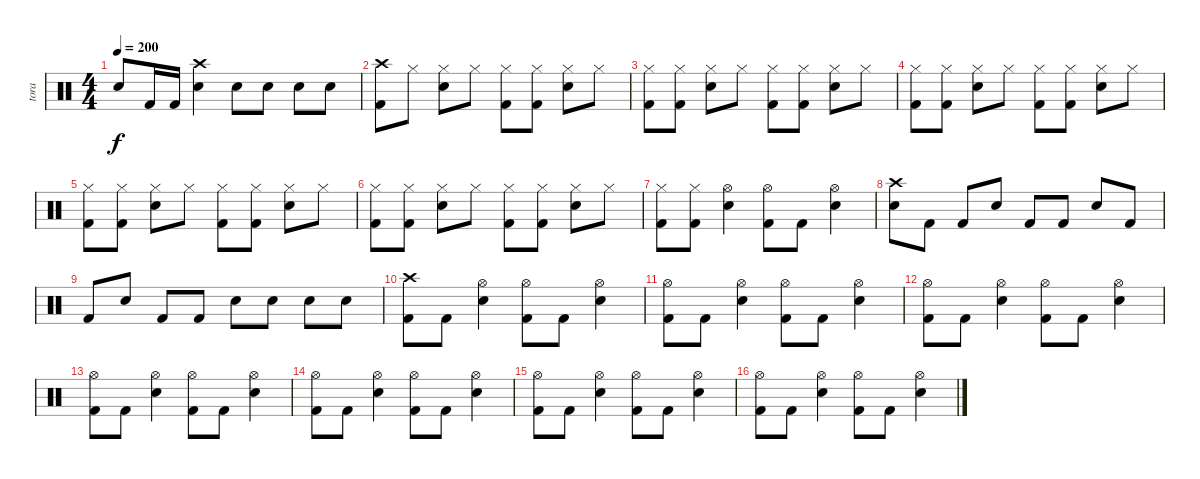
\track ("tora" "tora") {instrument percussion}
\staff {score}
\articulation defaults
\ts (4 4)
\tempo 200
\clef neutral
\ks c "Snare (hit) 2".8{dy f} "Kick (hit) 2".16 "Kick (hit) 2".16
("Crash high (hit)" "Snare (hit) 2").4 "Snare (hit) 2".8 "Snare (hit) 2".8 "Snare (hit) 2".8 "Snare (hit) 2".8 |
("Crash high (hit)" "Kick (hit) 2").8 "Hi-Hat (closed)".8 ("Hi-Hat (closed)" "Snare (hit) 2").8 "Hi-Hat (closed)".8 ("Hi-Hat (closed)" "Kick (hit) 2").8 ("Hi-Hat (closed)" "Kick (hit) 2").8 ("Hi-Hat (closed)" "Snare (hit) 2").8 "Hi-Hat (closed)".8 |
("Hi-Hat (closed)" "Kick (hit) 2").8 ("Hi-Hat (closed)" "Kick (hit) 2").8 ("Hi-Hat (closed)" "Snare (hit) 2").8 "Hi-Hat (closed)".8 ("Hi-Hat (closed)" "Kick (hit) 2").8 ("Hi-Hat (closed)" "Kick (hit) 2").8 ("Hi-Hat (closed)" "Snare (hit) 2").8 "Hi-Hat (closed)".8 |
("Hi-Hat (closed)" "Kick (hit) 2").8 ("Hi-Hat (closed)" "Kick (hit) 2").8 ("Hi-Hat (closed)" "Snare (hit) 2").8 "Hi-Hat (closed)".8 ("Hi-Hat (closed)" "Kick (hit) 2").8 ("Hi-Hat (closed)" "Kick (hit) 2").8 ("Hi-Hat (closed)" "Snare (hit) 2").8 "Hi-Hat (closed)".8 |
("Hi-Hat (closed)" "Kick (hit) 2").8 ("Hi-Hat (closed)" "Kick (hit) 2").8 ("Hi-Hat (closed)" "Snare (hit) 2").8 "Hi-Hat (closed)".8 ("Hi-Hat (closed)" "Kick (hit) 2").8 ("Hi-Hat (closed)" "Kick (hit) 2").8 ("Hi-Hat (closed)" "Snare (hit) 2").8 "Hi-Hat (closed)".8 |
("Hi-Hat (closed)" "Kick (hit) 2").8 ("Hi-Hat (closed)" "Kick (hit) 2").8 ("Hi-Hat (closed)" "Snare (hit) 2").8 "Hi-Hat (closed)".8 ("Hi-Hat (closed)" "Kick (hit) 2").8 ("Hi-Hat (closed)" "Kick (hit) 2").8 ("Hi-Hat (closed)" "Snare (hit) 2").8 "Hi-Hat (closed)".8 |
("Hi-Hat (closed)" "Kick (hit) 2").8 ("Hi-Hat (closed)" "Kick (hit) 2").8 ("Hi-Hat (open)" "Snare (hit) 2").4 ("Hi-Hat (open)" "Kick (hit) 2").8 "Kick (hit) 2".8 ("Hi-Hat (open)" "Snare (hit) 2").4 |
("Crash high (hit)" "Snare (hit) 2").8 "Kick (hit) 2".8 "Kick (hit) 2".8 "Snare (hit) 2".8 "Kick (hit) 2".8 "Kick (hit) 2".8 "Snare (hit) 2".8 "Kick (hit) 2".8 |
"Kick (hit) 2".8 "Snare (hit) 2".8 "Kick (hit) 2".8 "Kick (hit) 2".8 "Snare (hit) 2".8 "Snare (hit) 2".8 "Snare (hit) 2".8 "Snare (hit) 2".8 |
("Crash high (hit)" "Kick (hit) 2").8 "Kick (hit) 2".8 ("Hi-Hat (open)" "Snare (hit) 2").4 ("Hi-Hat (open)" "Kick (hit) 2").8 "Kick (hit) 2".8 ("Hi-Hat (open)" "Snare (hit) 2").4 |
("Hi-Hat (open)" "Kick (hit) 2").8 "Kick (hit) 2".8 ("Hi-Hat (open)" "Snare (hit) 2").4 ("Hi-Hat (open)" "Kick (hit) 2").8 "Kick (hit) 2".8 ("Hi-Hat (open)" "Snare (hit) 2").4 |
("Hi-Hat (open)" "Kick (hit) 2").8 "Kick (hit) 2".8 ("Hi-Hat (open)" "Snare (hit) 2").4 ("Hi-Hat (open)" "Kick (hit) 2").8 "Kick (hit) 2".8 ("Hi-Hat (open)" "Snare (hit) 2").4 |
("Hi-Hat (open)" "Kick (hit) 2").8 "Kick (hit) 2".8 ("Hi-Hat (open)" "Snare (hit) 2").4 ("Hi-Hat (open)" "Kick (hit) 2").8 "Kick (hit) 2".8 ("Hi-Hat (open)" "Snare (hit) 2").4 |
("Hi-Hat (open)" "Kick (hit) 2").8 "Kick (hit) 2".8 ("Hi-Hat (open)" "Snare (hit) 2").4 ("Hi-Hat (open)" "Kick (hit) 2").8 "Kick (hit) 2".8 ("Hi-Hat (open)" "Snare (hit) 2").4 |
("Hi-Hat (open)" "Kick (hit) 2").8 "Kick (hit) 2".8 ("Hi-Hat (open)" "Snare (hit) 2").4 ("Hi-Hat (open)" "Kick (hit) 2").8 "Kick (hit) 2".8 ("Hi-Hat (open)" "Snare (hit) 2").4 |
("Hi-Hat (open)" "Kick (hit) 2").8 "Kick (hit) 2".8 ("Hi-Hat (open)" "Snare (hit) 2").4 ("Hi-Hat (open)" "Kick (hit) 2").8 "Kick (hit) 2".8 ("Hi-Hat (open)" "Snare (hit) 2").4
